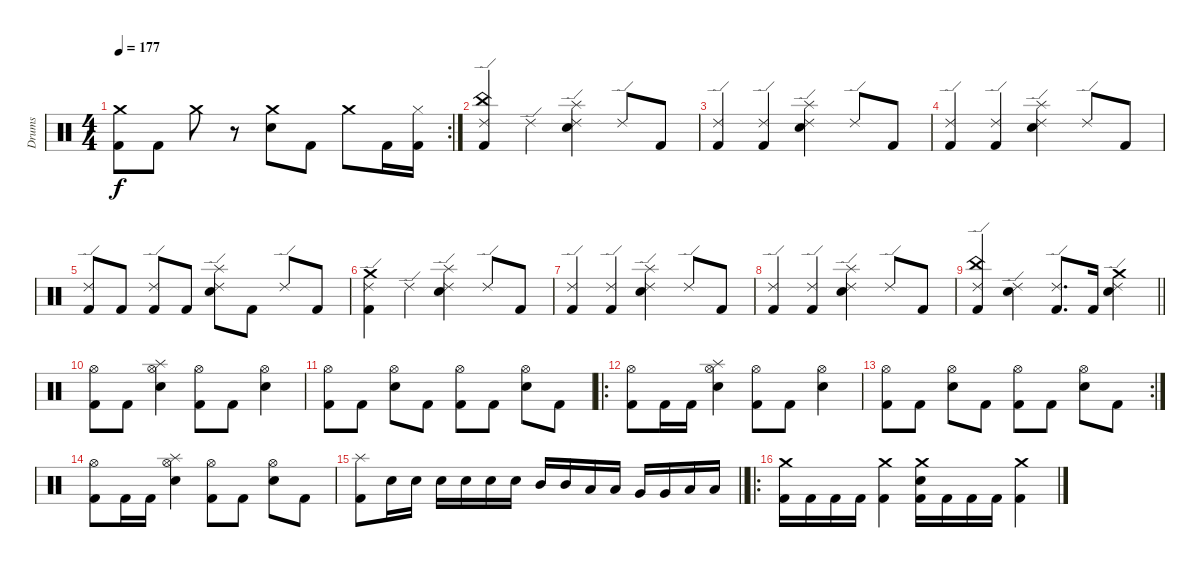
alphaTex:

\track ("Drums" "Drums") {instrument percussion}
\staff {score}
\articulation defaults
\rc 2
\ts (4 4)
\tempo 177
\clef neutral
\ks c
("Crash medium (hit)" "Kick (hit) 2").8{dy f} "Kick (hit) 2".8 "Crash medium (hit)".8 r.8 ("Crash medium (hit)" "Snare (hit) 2").8 "Kick (hit) 2".8 "Crash medium (hit)".8 "Kick (hit) 2".16 ("Hi-Hat (closed)" "Kick (hit) 2").16 |
("China (hit)" "Ride (edge) 2" "Kick (hit) 2").4 "Ride (edge) 2".4 ("Splash (hit)" "Ride (edge) 2" "Snare (hit) 2").4 "Ride (edge) 2".8 "Kick (hit) 2".8 |
("Ride (edge) 2" "Kick (hit) 2").4 ("Ride (edge) 2" "Kick (hit) 2").4 ("Splash (hit)" "Ride (edge) 2" "Snare (hit) 2").4 "Ride (edge) 2".8 "Kick (hit) 2".8 |
("Ride (edge) 2" "Kick (hit) 2").4 ("Ride (edge) 2" "Kick (hit) 2").4 ("Splash (hit)" "Ride (edge) 2" "Snare (hit) 2").4 "Ride (edge) 2".8 "Kick (hit) 2".8 |
("Ride (edge) 2" "Kick (hit) 2").8 "Kick (hit) 2".8 ("Ride (edge) 2" "Kick (hit) 2").8 "Kick (hit) 2".8 ("Splash (hit)" "Ride (edge) 2" "Snare (hit) 2").8 "Kick (hit) 2".8 "Ride (edge) 2".8 "Kick (hit) 2".8 |
("Crash medium (hit)" "Ride (edge) 2" "Kick (hit) 2").4 "Ride (edge) 2".4 ("Splash (hit)" "Ride (edge) 2" "Snare (hit) 2").4 "Ride (edge) 2".8 "Kick (hit) 2".8 |
("Ride (edge) 2" "Kick (hit) 2").4 ("Ride (edge) 2" "Kick (hit) 2").4 ("Splash (hit)" "Ride (edge) 2" "Snare (hit) 2").4 "Ride (edge) 2".8 "Kick (hit) 2".8 |
("Ride (edge) 2" "Kick (hit) 2").4 ("Ride (edge) 2" "Kick (hit) 2").4 ("Splash (hit)" "Ride (edge) 2" "Snare (hit) 2").4 "Ride (edge) 2".8 "Kick (hit) 2".8 |
\barLineRight lightlight
("China (hit)" "Ride (edge) 2" "Kick (hit) 2").4 ("Ride (edge) 2" "Snare (hit) 2").4 ("Ride (edge) 2" "Kick (hit) 2").8{d} "Kick (hit) 2".16 ("Crash medium (hit)" "Ride (edge) 2" "Snare (hit) 2").4 |
("Hi-Hat (open)" "Kick (hit) 2").8 "Kick (hit) 2".8 ("Splash (hit)" "Hi-Hat (open)" "Snare (hit) 2").4 ("Hi-Hat (open)" "Kick (hit) 2").8 "Kick (hit) 2".8 ("Hi-Hat (open)" "Snare (hit) 2").4 |
("Hi-Hat (open)" "Kick (hit) 2").8 "Kick (hit) 2".8 ("Hi-Hat (open)" "Snare (hit) 2").8 "Kick (hit) 2".8 ("Hi-Hat (open)" "Kick (hit) 2").8 "Kick (hit) 2".8 ("Hi-Hat (open)" "Snare (hit) 2").8 "Kick (hit) 2".8 |
\ro
("Hi-Hat (open)" "Kick (hit) 2").8 "Kick (hit) 2".16 "Kick (hit) 2".16 ("Splash (hit)" "Hi-Hat (open)" "Snare (hit) 2").4 ("Hi-Hat (open)" "Kick (hit) 2").8 "Kick (hit) 2".8 ("Hi-Hat (open)" "Snare (hit) 2").4 |
\rc 2
("Hi-Hat (open)" "Kick (hit) 2").8 "Kick (hit) 2".8 ("Hi-Hat (open)" "Snare (hit) 2").8 "Kick (hit) 2".8 ("Hi-Hat (open)" "Kick (hit) 2").8 "Kick (hit) 2".8 ("Hi-Hat (open)" "Snare (hit) 2").8 "Kick (hit) 2".8 |
("Hi-Hat (open)" "Kick (hit) 2").8 "Kick (hit) 2".16 "Kick (hit) 2".16 ("Splash (hit)" "Hi-Hat (open)" "Snare (hit) 2").4 ("Hi-Hat (open)" "Kick (hit) 2").8 "Kick (hit) 2".8 ("Hi-Hat (open)" "Snare (hit) 2").8 "Kick (hit) 2".8 |
\barLineRight lightlight
("Splash (hit)" "Kick (hit) 2").8 "Snare (hit) 2".16 "Snare (hit) 2".16 "Snare (hit) 2".16 "Snare (hit) 2".16 "Snare (hit) 2".16 "Snare (hit) 2".16 "Mid Tom (hit)".16 "Mid Tom (hit)".16 "Low Tom (hit)".16 "Low Tom (hit)".16 "Very Low Tom (hit)".16 "Very Low Tom (hit)".16 "Low Floor Tom (hit)".16 "Low Floor Tom (hit)".16 |
\ro
("Crash medium (hit)" "Kick (hit) 2").16 "Kick (hit) 2".16 "Kick (hit) 2".16 "Kick (hit) 2".16 ("Crash medium (hit)" "Kick (hit) 2").4 ("Crash medium (hit)" "Kick (hit) 2" "Snare (hit) 2").16 "Kick (hit) 2".16 "Kick (hit) 2".16 "Kick (hit) 2".16 ("Crash medium (hit)" "Kick (hit) 2").4
